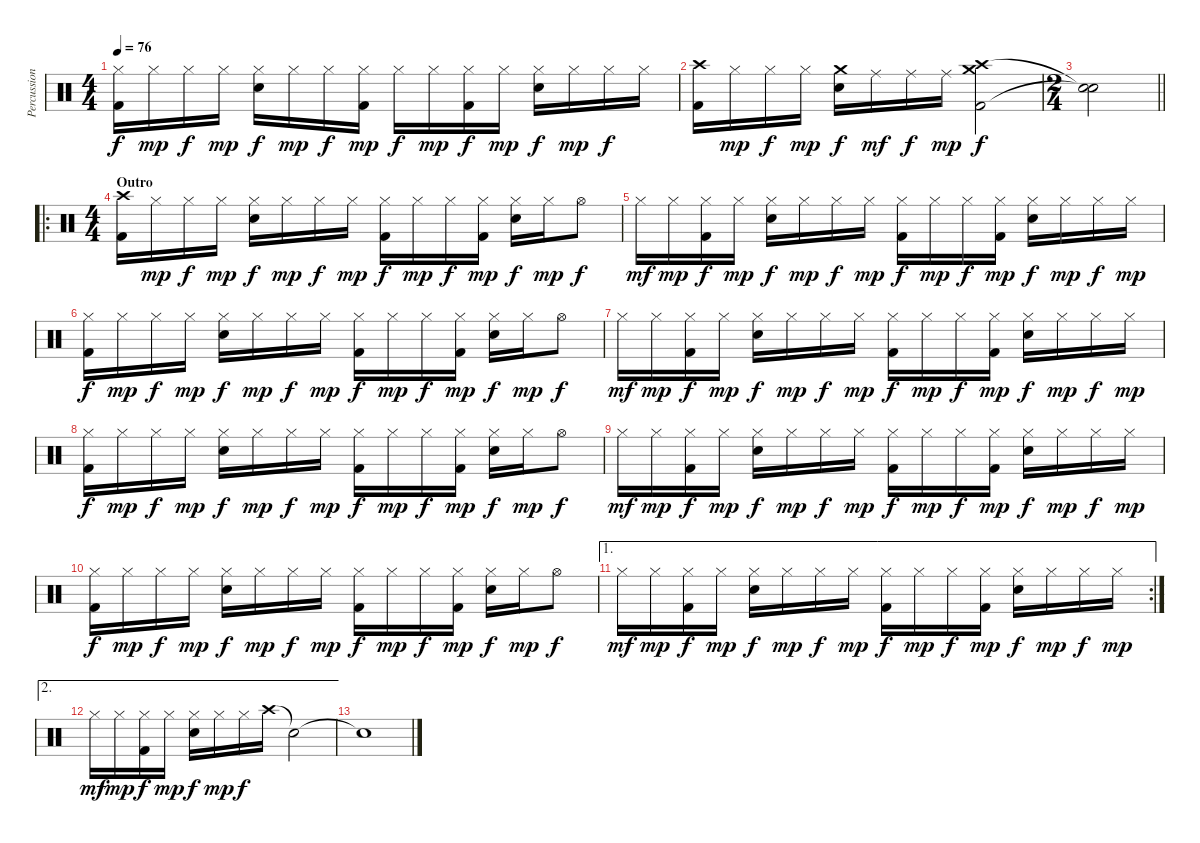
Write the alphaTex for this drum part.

\track ("Percussion" "Percussion") {instrument percussion}
\staff {score}
\articulation defaults
\ts (4 4)
\tempo 76
\clef neutral
\ks c
("Kick (hit) 2" "Hi-Hat (closed)").16{dy f} "Hi-Hat (closed)".16{dy mp} "Hi-Hat (closed)".16{dy f} "Hi-Hat (closed)".16{dy mp} ("Snare (hit) 2" "Hi-Hat (closed)").16{dy f} "Hi-Hat (closed)".16{dy mp} "Hi-Hat (closed)".16{dy f} ("Kick (hit) 2" "Hi-Hat (closed)").16{dy mp} "Hi-Hat (closed)".16{dy f} "Hi-Hat (closed)".16{dy mp} ("Kick (hit) 2" "Hi-Hat (closed)").16{dy f} "Hi-Hat (closed)".16{dy mp} ("Snare (hit) 2" "Hi-Hat (closed)").16{dy f} "Hi-Hat (closed)".16{dy mp} "Hi-Hat (closed)".16{dy f} "Hi-Hat (closed)".16 |
("Kick (hit) 2" "Crash high (hit)").16 "Hi-Hat (closed)".16{dy mp} "Hi-Hat (closed)".16{dy f} "Hi-Hat (closed)".16{dy mp} ("Crash medium (hit)" "Snare (hit) 2").16{dy f} "Ride (middle)".16{dy mf} "Ride (middle)".16{dy f} "Ride (middle)".16{dy mp} ("Kick (hit) 2" "Crash high (hit)" "Crash medium (hit)").2{dy f} |
\ts (2 4)
\barLineRight lightlight
("Snare (hit)"{t} "Snare (hit)"{t}).2 |
\ro
\ts (4 4)
\section ("" "Outro")
("Kick (hit) 2" "Crash high (hit)").16 "Hi-Hat (closed)".16{dy mp} "Hi-Hat (closed)".16{dy f} "Hi-Hat (closed)".16{dy mp} ("Snare (hit) 2" "Hi-Hat (closed)").16{dy f} "Hi-Hat (closed)".16{dy mp} "Hi-Hat (closed)".16{dy f} "Hi-Hat (closed)".16{dy mp} ("Kick (hit) 2" "Hi-Hat (closed)").16{dy f} "Hi-Hat (closed)".16{dy mp} "Hi-Hat (closed)".16{dy f} ("Kick (hit) 2" "Hi-Hat (closed)").16{dy mp} ("Snare (hit) 2" "Hi-Hat (closed)").16{dy f} "Hi-Hat (closed)".16{dy mp} "Hi-Hat (open)".8{dy f} |
"Hi-Hat (closed)".16{dy mf} "Hi-Hat (closed)".16{dy mp} ("Kick (hit) 2" "Hi-Hat (closed)").16{dy f} "Hi-Hat (closed)".16{dy mp} ("Snare (hit) 2" "Hi-Hat (closed)").16{dy f} "Hi-Hat (closed)".16{dy mp} "Hi-Hat (closed)".16{dy f} "Hi-Hat (closed)".16{dy mp} ("Kick (hit) 2" "Hi-Hat (closed)").16{dy f} "Hi-Hat (closed)".16{dy mp} "Hi-Hat (closed)".16{dy f} ("Kick (hit) 2" "Hi-Hat (closed)").16{dy mp} ("Snare (hit) 2" "Hi-Hat (closed)").16{dy f} "Hi-Hat (closed)".16{dy mp} "Hi-Hat (closed)".16{dy f} "Hi-Hat (closed)".16{dy mp} |
("Kick (hit) 2" "Hi-Hat (closed)").16{dy f} "Hi-Hat (closed)".16{dy mp} "Hi-Hat (closed)".16{dy f} "Hi-Hat (closed)".16{dy mp} ("Snare (hit) 2" "Hi-Hat (closed)").16{dy f} "Hi-Hat (closed)".16{dy mp} "Hi-Hat (closed)".16{dy f} "Hi-Hat (closed)".16{dy mp} ("Kick (hit) 2" "Hi-Hat (closed)").16{dy f} "Hi-Hat (closed)".16{dy mp} "Hi-Hat (closed)".16{dy f} ("Kick (hit) 2" "Hi-Hat (closed)").16{dy mp} ("Snare (hit) 2" "Hi-Hat (closed)").16{dy f} "Hi-Hat (closed)".16{dy mp} "Hi-Hat (open)".8{dy f} |
"Hi-Hat (closed)".16{dy mf} "Hi-Hat (closed)".16{dy mp} ("Kick (hit) 2" "Hi-Hat (closed)").16{dy f} "Hi-Hat (closed)".16{dy mp} ("Snare (hit) 2" "Hi-Hat (closed)").16{dy f} "Hi-Hat (closed)".16{dy mp} "Hi-Hat (closed)".16{dy f} "Hi-Hat (closed)".16{dy mp} ("Kick (hit) 2" "Hi-Hat (closed)").16{dy f} "Hi-Hat (closed)".16{dy mp} "Hi-Hat (closed)".16{dy f} ("Kick (hit) 2" "Hi-Hat (closed)").16{dy mp} ("Snare (hit) 2" "Hi-Hat (closed)").16{dy f} "Hi-Hat (closed)".16{dy mp} "Hi-Hat (closed)".16{dy f} "Hi-Hat (closed)".16{dy mp} |
("Kick (hit) 2" "Hi-Hat (closed)").16{dy f} "Hi-Hat (closed)".16{dy mp} "Hi-Hat (closed)".16{dy f} "Hi-Hat (closed)".16{dy mp} ("Snare (hit) 2" "Hi-Hat (closed)").16{dy f} "Hi-Hat (closed)".16{dy mp} "Hi-Hat (closed)".16{dy f} "Hi-Hat (closed)".16{dy mp} ("Kick (hit) 2" "Hi-Hat (closed)").16{dy f} "Hi-Hat (closed)".16{dy mp} "Hi-Hat (closed)".16{dy f} ("Kick (hit) 2" "Hi-Hat (closed)").16{dy mp} ("Snare (hit) 2" "Hi-Hat (closed)").16{dy f} "Hi-Hat (closed)".16{dy mp} "Hi-Hat (open)".8{dy f} |
"Hi-Hat (closed)".16{dy mf} "Hi-Hat (closed)".16{dy mp} ("Kick (hit) 2" "Hi-Hat (closed)").16{dy f} "Hi-Hat (closed)".16{dy mp} ("Snare (hit) 2" "Hi-Hat (closed)").16{dy f} "Hi-Hat (closed)".16{dy mp} "Hi-Hat (closed)".16{dy f} "Hi-Hat (closed)".16{dy mp} ("Kick (hit) 2" "Hi-Hat (closed)").16{dy f} "Hi-Hat (closed)".16{dy mp} "Hi-Hat (closed)".16{dy f} ("Kick (hit) 2" "Hi-Hat (closed)").16{dy mp} ("Snare (hit) 2" "Hi-Hat (closed)").16{dy f} "Hi-Hat (closed)".16{dy mp} "Hi-Hat (closed)".16{dy f} "Hi-Hat (closed)".16{dy mp} |
("Kick (hit) 2" "Hi-Hat (closed)").16{dy f} "Hi-Hat (closed)".16{dy mp} "Hi-Hat (closed)".16{dy f} "Hi-Hat (closed)".16{dy mp} ("Snare (hit) 2" "Hi-Hat (closed)").16{dy f} "Hi-Hat (closed)".16{dy mp} "Hi-Hat (closed)".16{dy f} "Hi-Hat (closed)".16{dy mp} ("Kick (hit) 2" "Hi-Hat (closed)").16{dy f} "Hi-Hat (closed)".16{dy mp} "Hi-Hat (closed)".16{dy f} ("Kick (hit) 2" "Hi-Hat (closed)").16{dy mp} ("Snare (hit) 2" "Hi-Hat (closed)").16{dy f} "Hi-Hat (closed)".16{dy mp} "Hi-Hat (open)".8{dy f} |
\ae 1
\rc 2 "Hi-Hat (closed)".16{dy mf} "Hi-Hat (closed)".16{dy mp}
("Kick (hit) 2" "Hi-Hat (closed)").16{dy f} "Hi-Hat (closed)".16{dy mp} ("Snare (hit) 2" "Hi-Hat (closed)").16{dy f} "Hi-Hat (closed)".16{dy mp} "Hi-Hat (closed)".16{dy f} "Hi-Hat (closed)".16{dy mp} ("Kick (hit) 2" "Hi-Hat (closed)").16{dy f} "Hi-Hat (closed)".16{dy mp} "Hi-Hat (closed)".16{dy f} ("Kick (hit) 2" "Hi-Hat (closed)").16{dy mp} ("Snare (hit) 2" "Hi-Hat (closed)").16{dy f} "Hi-Hat (closed)".16{dy mp} "Hi-Hat (closed)".16{dy f} "Hi-Hat (closed)".16{dy mp} |
\ae 2 "Hi-Hat (closed)".16{dy mf} "Hi-Hat (closed)".16{dy mp}
("Kick (hit) 2" "Hi-Hat (closed)").16{dy f} "Hi-Hat (closed)".16{dy mp} ("Snare (hit) 2" "Hi-Hat (closed)").16{dy f} "Hi-Hat (closed)".16{dy mp} "Hi-Hat (closed)".16{dy f} "Crash high (hit)".16 "Snare (hit)"{t}.2 |
"Snare (hit)"{t}.1
